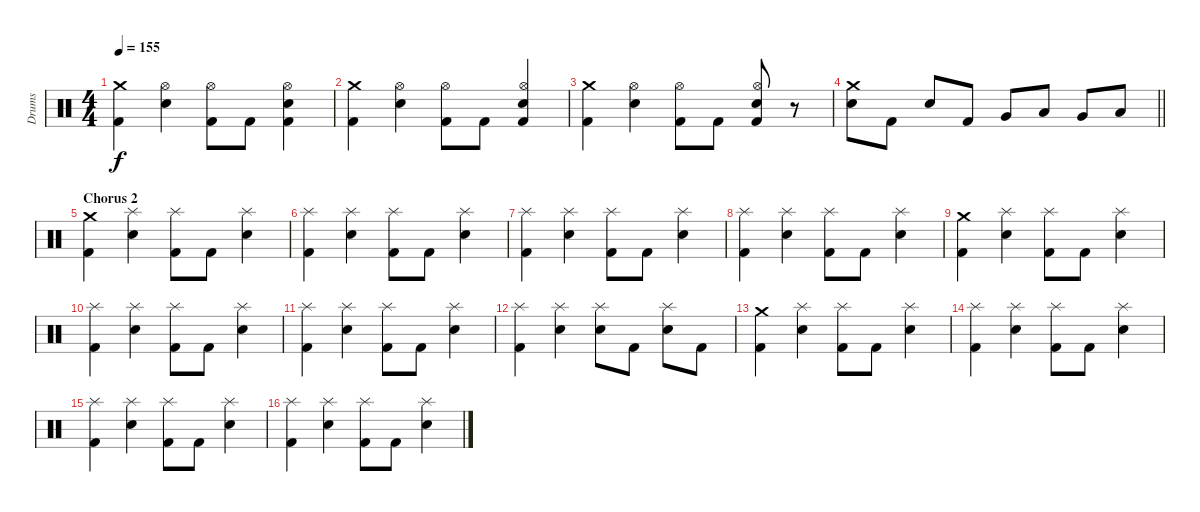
\track ("Drums" "Drums") {instrument percussion}
\staff {score}
\articulation defaults
\ts (4 4)
\tempo 155
\clef neutral
\ks c
("Kick (hit) 2" "Crash medium (hit)").4{dy f} ("Snare (hit) 2" "Hi-Hat (open)").4 ("Kick (hit) 2" "Hi-Hat (open)").8 "Kick (hit) 2".8 ("Snare (hit) 2" "Hi-Hat (open)" "Kick (hit) 2").4 |
("Kick (hit) 2" "Crash medium (hit)").4 ("Electric Snare (hit)" "Hi-Hat (open)").4 ("Kick (hit) 2" "Hi-Hat (open)").8 "Kick (hit) 2".8 ("Electric Snare (hit)" "Hi-Hat (open)" "Kick (hit) 2").4 |
("Kick (hit) 2" "Crash medium (hit)").4 ("Snare (hit) 2" "Hi-Hat (open)").4 ("Kick (hit) 2" "Hi-Hat (open)").8 "Kick (hit) 2".8 ("Electric Snare (hit)" "Hi-Hat (open)" "Kick (hit) 2").8 r.8 |
\barLineRight lightlight
("Crash medium (hit)" "Electric Snare (hit)").8 "Kick (hit) 2".8 "Electric Snare (hit)".8 "Kick (hit) 2".8 "Very Low Tom (hit)".8 "Low Tom (hit)".8 "Very Low Tom (hit)".8 "Low Floor Tom (hit)".8 |
\section ("" "Chorus 2")
("Kick (hit) 2" "Crash medium (hit)").4 ("Splash (hit)" "Electric Snare (hit)").4 ("Kick (hit) 2" "Splash (hit)").8 "Kick (hit) 2".8 ("Splash (hit)" "Electric Snare (hit)").4 |
("Kick (hit) 2" "Splash (hit)").4 ("Splash (hit)" "Electric Snare (hit)").4 ("Kick (hit) 2" "Splash (hit)").8 "Kick (hit) 2".8 ("Splash (hit)" "Electric Snare (hit)").4 |
("Kick (hit) 2" "Splash (hit)").4 ("Electric Snare (hit)" "Splash (hit)").4 ("Kick (hit) 2" "Splash (hit)").8 "Kick (hit) 2".8 ("Electric Snare (hit)" "Splash (hit)").4 |
("Kick (hit) 2" "Splash (hit)").4 ("Electric Snare (hit)" "Splash (hit)").4 ("Kick (hit) 2" "Splash (hit)").8 "Kick (hit) 2".8 ("Electric Snare (hit)" "Splash (hit)").4 |
("Kick (hit) 2" "Crash medium (hit)").4 ("Splash (hit)" "Electric Snare (hit)").4 ("Kick (hit) 2" "Splash (hit)").8 "Kick (hit) 2".8 ("Splash (hit)" "Electric Snare (hit)").4 |
("Kick (hit) 2" "Splash (hit)").4 ("Splash (hit)" "Electric Snare (hit)").4 ("Kick (hit) 2" "Splash (hit)").8 "Kick (hit) 2".8 ("Splash (hit)" "Electric Snare (hit)").4 |
("Kick (hit) 2" "Splash (hit)").4 ("Electric Snare (hit)" "Splash (hit)").4 ("Kick (hit) 2" "Splash (hit)").8 "Kick (hit) 2".8 ("Electric Snare (hit)" "Splash (hit)").4 |
("Kick (hit) 2" "Splash (hit)").4 ("Electric Snare (hit)" "Splash (hit)").4 ("Snare (hit) 2" "Splash (hit)").8 "Kick (hit) 2".8 ("Electric Snare (hit)" "Splash (hit)").8 "Kick (hit) 2".8 |
("Kick (hit) 2" "Crash medium (hit)").4 ("Splash (hit)" "Electric Snare (hit)").4 ("Kick (hit) 2" "Splash (hit)").8 "Kick (hit) 2".8 ("Splash (hit)" "Electric Snare (hit)").4 |
("Kick (hit) 2" "Splash (hit)").4 ("Splash (hit)" "Electric Snare (hit)").4 ("Kick (hit) 2" "Splash (hit)").8 "Kick (hit) 2".8 ("Splash (hit)" "Electric Snare (hit)").4 |
("Kick (hit) 2" "Splash (hit)").4 ("Electric Snare (hit)" "Splash (hit)").4 ("Kick (hit) 2" "Splash (hit)").8 "Kick (hit) 2".8 ("Electric Snare (hit)" "Splash (hit)").4 |
("Kick (hit) 2" "Splash (hit)").4 ("Electric Snare (hit)" "Splash (hit)").4 ("Kick (hit) 2" "Splash (hit)").8 "Kick (hit) 2".8 ("Electric Snare (hit)" "Splash (hit)").4
